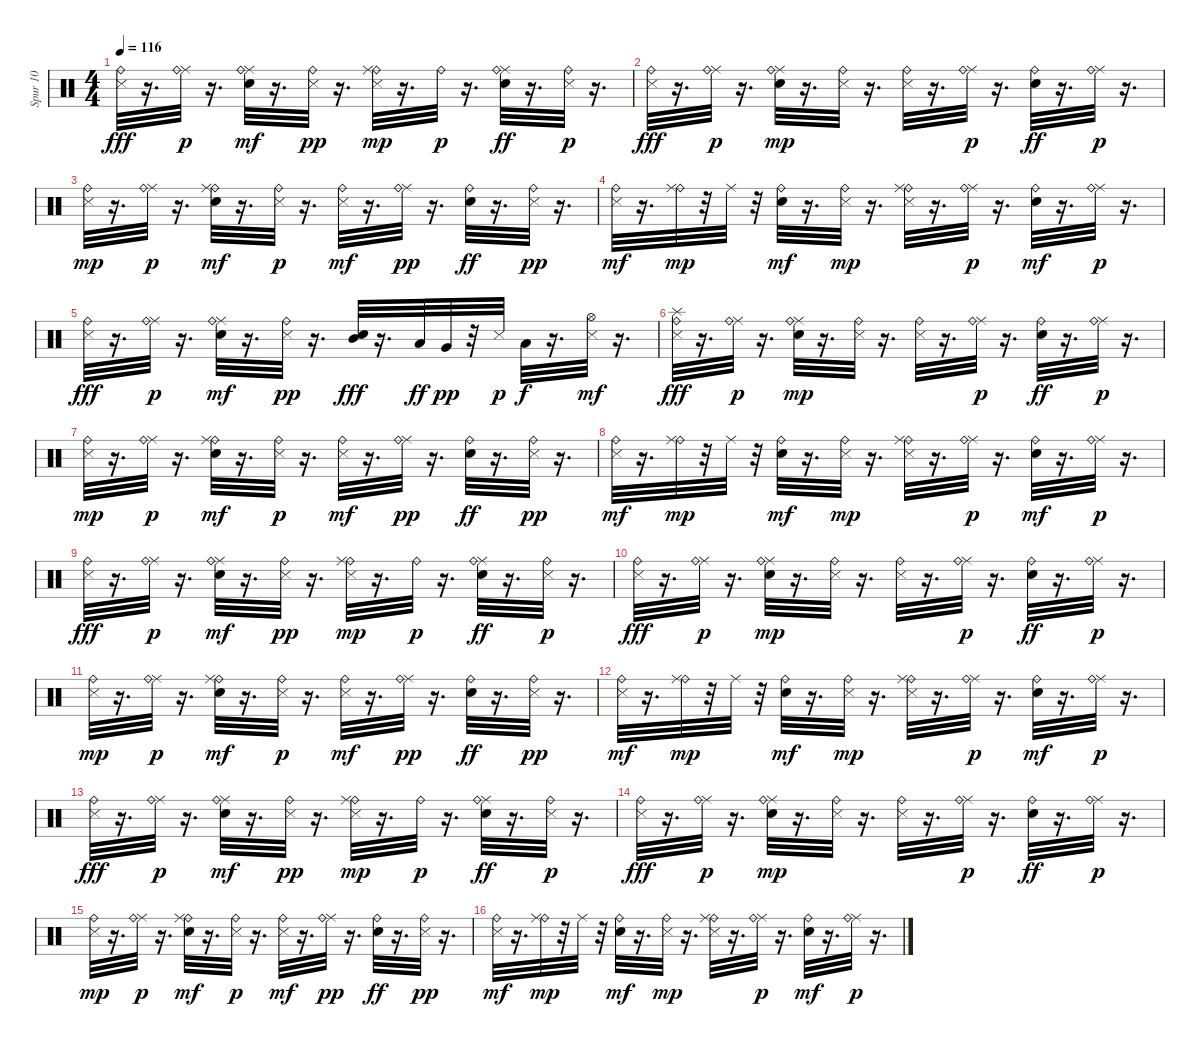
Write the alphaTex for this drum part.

\track ("Spur 10" "Spur 10") {instrument percussion}
\staff {score}
\articulation defaults
\ts (4 4)
\tempo 116
\clef neutral
\ks c
("Metronome (hit)" "Ride (bell)").32{dy fff} r.16{d} ("Ride (middle)" "Ride (bell)").32{dy p} r.16{d} ("Metronome (bell)" "Ride (middle)" "Ride (bell)").32{dy mf} r.16{d} ("Metronome (hit)" "Ride (bell)").32{dy pp} r.16{d} ("Metronome (hit)" "Ride (bell)" "Ride (middle)").32{dy mp} r.16{d} "Ride (bell)".32{dy p} r.16{d} ("Ride (middle)" "Metronome (bell)" "Ride (bell)").32{dy ff} r.16{d} ("Metronome (hit)" "Ride (bell)").32{dy p} r.16{d} |
("Metronome (hit)" "Ride (bell)").32{dy fff} r.16{d} ("Ride (middle)" "Ride (bell)").32{dy p} r.16{d} ("Metronome (bell)" "Ride (middle)" "Ride (bell)").32{dy mp} r.16{d} ("Metronome (hit)" "Ride (bell)").32 r.16{d} ("Metronome (hit)" "Ride (bell)").32 r.16{d} ("Ride (middle)" "Ride (bell)").32{dy p} r.16{d} ("Metronome (bell)" "Ride (bell)").32{dy ff} r.16{d} ("Ride (middle)" "Ride (bell)").32{dy p} r.16{d} |
("Metronome (hit)" "Ride (bell)").32{dy mp} r.16{d} ("Ride (middle)" "Ride (bell)").32{dy p} r.16{d} ("Metronome (bell)" "Ride (bell)" "Ride (middle)").32{dy mf} r.16{d} ("Metronome (hit)" "Ride (bell)").32{dy p} r.16{d} ("Metronome (hit)" "Ride (bell)").32{dy mf} r.16{d} ("Ride (middle)" "Ride (bell)").32{dy pp} r.16{d} ("Metronome (bell)" "Ride (bell)").32{dy ff} r.16{d} ("Metronome (hit)" "Ride (bell)").32{dy pp} r.16{d} |
("Metronome (hit)" "Ride (bell)").32{dy mf} r.16{d} ("Ride (bell)" "Ride (middle)").32{dy mp} r.32 "Ride (middle)".32 r.32 ("Metronome (bell)" "Ride (bell)").32{dy mf} r.16{d} ("Metronome (hit)" "Ride (bell)").32{dy mp} r.16{d} ("Metronome (hit)" "Ride (bell)" "Ride (middle)").32 r.16{d} ("Ride (middle)" "Ride (bell)").32{dy p} r.16{d} ("Metronome (bell)" "Ride (bell)").32{dy mf} r.16{d} ("Ride (middle)" "Ride (bell)").32{dy p} r.16{d} |
("Metronome (hit)" "Ride (bell)").32{dy fff} r.16{d} ("Ride (middle)" "Ride (bell)").32{dy p} r.16{d} ("Metronome (bell)" "Ride (middle)" "Ride (bell)").32{dy mf} r.16{d} ("Metronome (hit)" "Ride (bell)").32{dy pp} r.16{d} ("Metronome (bell)" "Mid Tom (hit)").32{dy fff} r.16{d} "Low Tom (hit)".32{dy ff} "Very Low Tom (hit)".32{dy pp} r.32 "Metronome (hit)".32{dy p} "Low Floor Tom (hit)".32{dy f} r.16{d} ("Metronome (hit)" "Hi-Hat (open)").32{dy mf} r.16{d} |
("Splash (hit)" "Metronome (hit)" "Ride (bell)").32{dy fff} r.16{d} ("Ride (middle)" "Ride (bell)").32{dy p} r.16{d} ("Metronome (bell)" "Ride (middle)" "Ride (bell)").32{dy mp} r.16{d} ("Metronome (hit)" "Ride (bell)").32 r.16{d} ("Metronome (hit)" "Ride (bell)").32 r.16{d} ("Ride (middle)" "Ride (bell)").32{dy p} r.16{d} ("Metronome (bell)" "Ride (bell)").32{dy ff} r.16{d} ("Ride (middle)" "Ride (bell)").32{dy p} r.16{d} |
("Metronome (hit)" "Ride (bell)").32{dy mp} r.16{d} ("Ride (middle)" "Ride (bell)").32{dy p} r.16{d} ("Metronome (bell)" "Ride (bell)" "Ride (middle)").32{dy mf} r.16{d} ("Metronome (hit)" "Ride (bell)").32{dy p} r.16{d} ("Metronome (hit)" "Ride (bell)").32{dy mf} r.16{d} ("Ride (middle)" "Ride (bell)").32{dy pp} r.16{d} ("Metronome (bell)" "Ride (bell)").32{dy ff} r.16{d} ("Metronome (hit)" "Ride (bell)").32{dy pp} r.16{d} |
("Metronome (hit)" "Ride (bell)").32{dy mf} r.16{d} ("Ride (bell)" "Ride (middle)").32{dy mp} r.32 "Ride (middle)".32 r.32 ("Metronome (bell)" "Ride (bell)").32{dy mf} r.16{d} ("Metronome (hit)" "Ride (bell)").32{dy mp} r.16{d} ("Metronome (hit)" "Ride (bell)" "Ride (middle)").32 r.16{d} ("Ride (middle)" "Ride (bell)").32{dy p} r.16{d} ("Metronome (bell)" "Ride (bell)").32{dy mf} r.16{d} ("Ride (middle)" "Ride (bell)").32{dy p} r.16{d} |
("Metronome (hit)" "Ride (bell)").32{dy fff} r.16{d} ("Ride (middle)" "Ride (bell)").32{dy p} r.16{d} ("Metronome (bell)" "Ride (middle)" "Ride (bell)").32{dy mf} r.16{d} ("Metronome (hit)" "Ride (bell)").32{dy pp} r.16{d} ("Metronome (hit)" "Ride (bell)" "Ride (middle)").32{dy mp} r.16{d} "Ride (bell)".32{dy p} r.16{d} ("Ride (middle)" "Metronome (bell)" "Ride (bell)").32{dy ff} r.16{d} ("Metronome (hit)" "Ride (bell)").32{dy p} r.16{d} |
("Metronome (hit)" "Ride (bell)").32{dy fff} r.16{d} ("Ride (middle)" "Ride (bell)").32{dy p} r.16{d} ("Metronome (bell)" "Ride (middle)" "Ride (bell)").32{dy mp} r.16{d} ("Metronome (hit)" "Ride (bell)").32 r.16{d} ("Metronome (hit)" "Ride (bell)").32 r.16{d} ("Ride (middle)" "Ride (bell)").32{dy p} r.16{d} ("Metronome (bell)" "Ride (bell)").32{dy ff} r.16{d} ("Ride (middle)" "Ride (bell)").32{dy p} r.16{d} |
("Metronome (hit)" "Ride (bell)").32{dy mp} r.16{d} ("Ride (middle)" "Ride (bell)").32{dy p} r.16{d} ("Metronome (bell)" "Ride (bell)" "Ride (middle)").32{dy mf} r.16{d} ("Metronome (hit)" "Ride (bell)").32{dy p} r.16{d} ("Metronome (hit)" "Ride (bell)").32{dy mf} r.16{d} ("Ride (middle)" "Ride (bell)").32{dy pp} r.16{d} ("Metronome (bell)" "Ride (bell)").32{dy ff} r.16{d} ("Metronome (hit)" "Ride (bell)").32{dy pp} r.16{d} |
("Metronome (hit)" "Ride (bell)").32{dy mf} r.16{d} ("Ride (bell)" "Ride (middle)").32{dy mp} r.32 "Ride (middle)".32 r.32 ("Metronome (bell)" "Ride (bell)").32{dy mf} r.16{d} ("Metronome (hit)" "Ride (bell)").32{dy mp} r.16{d} ("Metronome (hit)" "Ride (bell)" "Ride (middle)").32 r.16{d} ("Ride (middle)" "Ride (bell)").32{dy p} r.16{d} ("Metronome (bell)" "Ride (bell)").32{dy mf} r.16{d} ("Ride (middle)" "Ride (bell)").32{dy p} r.16{d} |
("Metronome (hit)" "Ride (bell)").32{dy fff} r.16{d} ("Ride (middle)" "Ride (bell)").32{dy p} r.16{d} ("Metronome (bell)" "Ride (middle)" "Ride (bell)").32{dy mf} r.16{d} ("Metronome (hit)" "Ride (bell)").32{dy pp} r.16{d} ("Metronome (hit)" "Ride (bell)" "Ride (middle)").32{dy mp} r.16{d} "Ride (bell)".32{dy p} r.16{d} ("Ride (middle)" "Metronome (bell)" "Ride (bell)").32{dy ff} r.16{d} ("Metronome (hit)" "Ride (bell)").32{dy p} r.16{d} |
("Metronome (hit)" "Ride (bell)").32{dy fff} r.16{d} ("Ride (middle)" "Ride (bell)").32{dy p} r.16{d} ("Metronome (bell)" "Ride (middle)" "Ride (bell)").32{dy mp} r.16{d} ("Metronome (hit)" "Ride (bell)").32 r.16{d} ("Metronome (hit)" "Ride (bell)").32 r.16{d} ("Ride (middle)" "Ride (bell)").32{dy p} r.16{d} ("Metronome (bell)" "Ride (bell)").32{dy ff} r.16{d} ("Ride (middle)" "Ride (bell)").32{dy p} r.16{d} |
("Metronome (hit)" "Ride (bell)").32{dy mp} r.16{d} ("Ride (middle)" "Ride (bell)").32{dy p} r.16{d} ("Metronome (bell)" "Ride (bell)" "Ride (middle)").32{dy mf} r.16{d} ("Metronome (hit)" "Ride (bell)").32{dy p} r.16{d} ("Metronome (hit)" "Ride (bell)").32{dy mf} r.16{d} ("Ride (middle)" "Ride (bell)").32{dy pp} r.16{d} ("Metronome (bell)" "Ride (bell)").32{dy ff} r.16{d} ("Metronome (hit)" "Ride (bell)").32{dy pp} r.16{d} |
("Metronome (hit)" "Ride (bell)").32{dy mf} r.16{d} ("Ride (bell)" "Ride (middle)").32{dy mp} r.32 "Ride (middle)".32 r.32 ("Metronome (bell)" "Ride (bell)").32{dy mf} r.16{d} ("Metronome (hit)" "Ride (bell)").32{dy mp} r.16{d} ("Metronome (hit)" "Ride (bell)" "Ride (middle)").32 r.16{d} ("Ride (middle)" "Ride (bell)").32{dy p} r.16{d} ("Metronome (bell)" "Ride (bell)").32{dy mf} r.16{d} ("Ride (middle)" "Ride (bell)").32{dy p} r.16{d}
